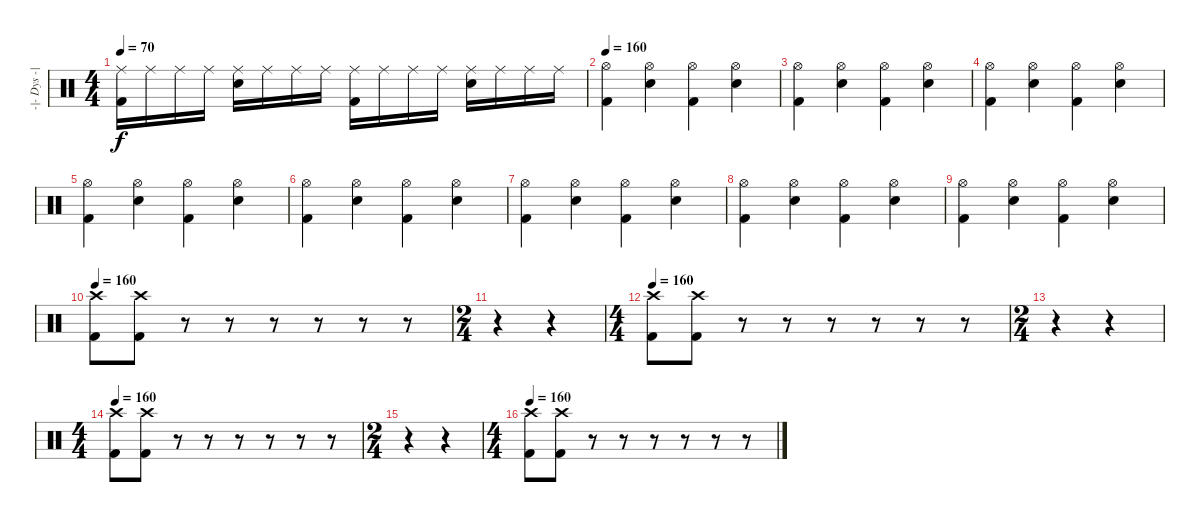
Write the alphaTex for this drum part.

\track ("-|- Dys -|-" "-|- Dys -|") {instrument percussion}
\staff {score}
\articulation defaults
\ts (4 4)
\tempo 70
\clef neutral
\ks c
("Ride (middle)" "Kick (hit) 2").16{dy f} "Ride (middle)".16 "Ride (middle)".16 "Ride (middle)".16 ("Ride (middle)" "Snare (hit) 2").16 "Ride (middle)".16 "Ride (middle)".16 "Ride (middle)".16 ("Ride (middle)" "Kick (hit) 2").16 "Ride (middle)".16 "Ride (middle)".16 "Ride (middle)".16 ("Ride (middle)" "Snare (hit) 2").16 "Ride (middle)".16 "Ride (middle)".16 "Ride (middle)".16 |
\tempo 160
("Hi-Hat (open)" "Kick (hit) 2").4 ("Hi-Hat (open)" "Snare (hit) 2").4 ("Hi-Hat (open)" "Kick (hit) 2").4 ("Hi-Hat (open)" "Snare (hit) 2").4 |
("Hi-Hat (open)" "Kick (hit) 2").4 ("Hi-Hat (open)" "Snare (hit) 2").4 ("Hi-Hat (open)" "Kick (hit) 2").4 ("Hi-Hat (open)" "Snare (hit) 2").4 |
("Hi-Hat (open)" "Kick (hit) 2").4 ("Hi-Hat (open)" "Snare (hit) 2").4 ("Hi-Hat (open)" "Kick (hit) 2").4 ("Hi-Hat (open)" "Snare (hit) 2").4 |
("Hi-Hat (open)" "Kick (hit) 2").4 ("Hi-Hat (open)" "Snare (hit) 2").4 ("Hi-Hat (open)" "Kick (hit) 2").4 ("Hi-Hat (open)" "Snare (hit) 2").4 |
("Hi-Hat (open)" "Kick (hit) 2").4 ("Hi-Hat (open)" "Snare (hit) 2").4 ("Hi-Hat (open)" "Kick (hit) 2").4 ("Hi-Hat (open)" "Snare (hit) 2").4 |
("Hi-Hat (open)" "Kick (hit) 2").4 ("Hi-Hat (open)" "Snare (hit) 2").4 ("Hi-Hat (open)" "Kick (hit) 2").4 ("Hi-Hat (open)" "Snare (hit) 2").4 |
("Hi-Hat (open)" "Kick (hit) 2").4 ("Hi-Hat (open)" "Snare (hit) 2").4 ("Hi-Hat (open)" "Kick (hit) 2").4 ("Hi-Hat (open)" "Snare (hit) 2").4 |
("Hi-Hat (open)" "Kick (hit) 2").4 ("Hi-Hat (open)" "Snare (hit) 2").4 ("Hi-Hat (open)" "Kick (hit) 2").4 ("Hi-Hat (open)" "Snare (hit) 2").4 |
\tempo 160
("Crash high (hit)" "Kick (hit) 2").8 ("Crash high (hit)" "Kick (hit) 2").8 r.8 r.8 r.8 r.8 r.8 r.8 |
\ts (2 4)
r.4 r.4 |
\ts (4 4)
\tempo 160
("Crash high (hit)" "Kick (hit) 2").8 ("Crash high (hit)" "Kick (hit) 2").8 r.8 r.8 r.8 r.8 r.8 r.8 |
\ts (2 4)
r.4 r.4 |
\ts (4 4)
\tempo 160
("Crash high (hit)" "Kick (hit) 2").8 ("Crash high (hit)" "Kick (hit) 2").8 r.8 r.8 r.8 r.8 r.8 r.8 |
\ts (2 4)
r.4 r.4 |
\ts (4 4)
\tempo 160
("Crash high (hit)" "Kick (hit) 2").8 ("Crash high (hit)" "Kick (hit) 2").8 r.8 r.8 r.8 r.8 r.8 r.8
